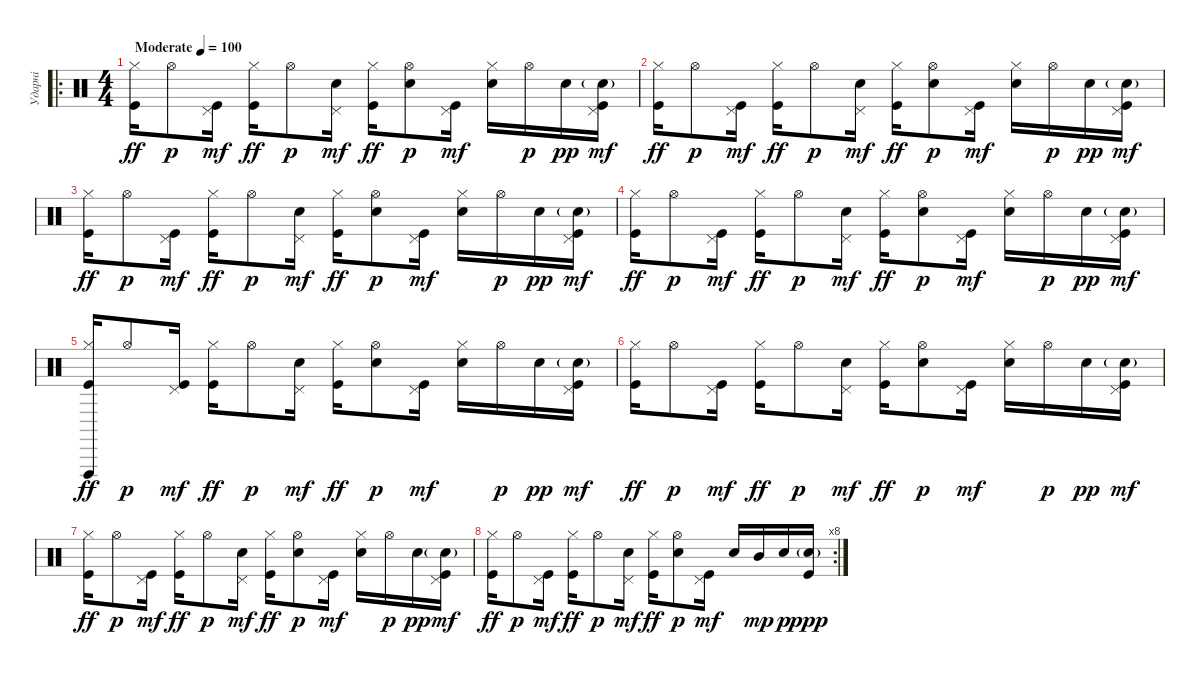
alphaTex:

\track ("Ударні" "Ударні") {instrument percussion}
\staff {score}
\articulation defaults
\ro
\ts (4 4)
\tempo (100 "Moderate")
\clef neutral
\ks c
("Hi-Hat (closed)" "Kick (hit)").16{dy ff} "Hi-Hat (open)".8{dy p} ("Pedal Hi-Hat (hit)" "Kick (hit)").16{dy mf} ("Hi-Hat (closed)" "Kick (hit)").16{dy ff} "Hi-Hat (open)".8{dy p} ("Pedal Hi-Hat (hit)" "Electric Snare (hit)").16{dy mf} ("Hi-Hat (closed)" "Kick (hit)").16{dy ff} ("Hi-Hat (open)" "Electric Snare (hit)").8{dy p} ("Pedal Hi-Hat (hit)" "Kick (hit)").16{dy mf} ("Hi-Hat (closed)" "Electric Snare (hit)").16 "Hi-Hat (open)".16{dy p} "Electric Snare (hit)".16{dy pp} ("Pedal Hi-Hat (hit)" "Electric Snare (hit)"{g} "Kick (hit)").16{dy mf} |
("Hi-Hat (closed)" "Kick (hit)").16{dy ff} "Hi-Hat (open)".8{dy p} ("Pedal Hi-Hat (hit)" "Kick (hit)").16{dy mf} ("Hi-Hat (closed)" "Kick (hit)").16{dy ff} "Hi-Hat (open)".8{dy p} ("Pedal Hi-Hat (hit)" "Electric Snare (hit)").16{dy mf} ("Hi-Hat (closed)" "Kick (hit)").16{dy ff} ("Hi-Hat (open)" "Electric Snare (hit)").8{dy p} ("Pedal Hi-Hat (hit)" "Kick (hit)").16{dy mf} ("Hi-Hat (closed)" "Electric Snare (hit)").16 "Hi-Hat (open)".16{dy p} "Electric Snare (hit)".16{dy pp} ("Pedal Hi-Hat (hit)" "Electric Snare (hit)"{g} "Kick (hit)").16{dy mf} |
("Hi-Hat (closed)" "Kick (hit)").16{dy ff} "Hi-Hat (open)".8{dy p} ("Pedal Hi-Hat (hit)" "Kick (hit)").16{dy mf} ("Hi-Hat (closed)" "Kick (hit)").16{dy ff} "Hi-Hat (open)".8{dy p} ("Pedal Hi-Hat (hit)" "Electric Snare (hit)").16{dy mf} ("Hi-Hat (closed)" "Kick (hit)").16{dy ff} ("Hi-Hat (open)" "Electric Snare (hit)").8{dy p} ("Pedal Hi-Hat (hit)" "Kick (hit)").16{dy mf} ("Hi-Hat (closed)" "Electric Snare (hit)").16 "Hi-Hat (open)".16{dy p} "Electric Snare (hit)".16{dy pp} ("Pedal Hi-Hat (hit)" "Electric Snare (hit)"{g} "Kick (hit)").16{dy mf} |
("Hi-Hat (closed)" "Kick (hit)").16{dy ff} "Hi-Hat (open)".8{dy p} ("Pedal Hi-Hat (hit)" "Kick (hit)").16{dy mf} ("Hi-Hat (closed)" "Kick (hit)").16{dy ff} "Hi-Hat (open)".8{dy p} ("Pedal Hi-Hat (hit)" "Electric Snare (hit)").16{dy mf} ("Hi-Hat (closed)" "Kick (hit)").16{dy ff} ("Hi-Hat (open)" "Electric Snare (hit)").8{dy p} ("Pedal Hi-Hat (hit)" "Kick (hit)").16{dy mf} ("Hi-Hat (closed)" "Electric Snare (hit)").16 "Hi-Hat (open)".16{dy p} "Electric Snare (hit)".16{dy pp} ("Pedal Hi-Hat (hit)" "Electric Snare (hit)"{g} "Kick (hit)").16{dy mf} |
("Vibraslap (hit)" "Hi-Hat (closed)" "Kick (hit)").16{dy ff} "Hi-Hat (open)".8{dy p} ("Pedal Hi-Hat (hit)" "Kick (hit)").16{dy mf} ("Hi-Hat (closed)" "Kick (hit)").16{dy ff} "Hi-Hat (open)".8{dy p} ("Pedal Hi-Hat (hit)" "Electric Snare (hit)").16{dy mf} ("Hi-Hat (closed)" "Kick (hit)").16{dy ff} ("Hi-Hat (open)" "Electric Snare (hit)").8{dy p} ("Pedal Hi-Hat (hit)" "Kick (hit)").16{dy mf} ("Hi-Hat (closed)" "Electric Snare (hit)").16 "Hi-Hat (open)".16{dy p} "Electric Snare (hit)".16{dy pp} ("Pedal Hi-Hat (hit)" "Electric Snare (hit)"{g} "Kick (hit)").16{dy mf} |
("Hi-Hat (closed)" "Kick (hit)").16{dy ff} "Hi-Hat (open)".8{dy p} ("Pedal Hi-Hat (hit)" "Kick (hit)").16{dy mf} ("Hi-Hat (closed)" "Kick (hit)").16{dy ff} "Hi-Hat (open)".8{dy p} ("Pedal Hi-Hat (hit)" "Electric Snare (hit)").16{dy mf} ("Hi-Hat (closed)" "Kick (hit)").16{dy ff} ("Hi-Hat (open)" "Electric Snare (hit)").8{dy p} ("Pedal Hi-Hat (hit)" "Kick (hit)").16{dy mf} ("Hi-Hat (closed)" "Electric Snare (hit)").16 "Hi-Hat (open)".16{dy p} "Electric Snare (hit)".16{dy pp} ("Pedal Hi-Hat (hit)" "Electric Snare (hit)"{g} "Kick (hit)").16{dy mf} |
("Hi-Hat (closed)" "Kick (hit)").16{dy ff} "Hi-Hat (open)".8{dy p} ("Pedal Hi-Hat (hit)" "Kick (hit)").16{dy mf} ("Hi-Hat (closed)" "Kick (hit)").16{dy ff} "Hi-Hat (open)".8{dy p} ("Pedal Hi-Hat (hit)" "Electric Snare (hit)").16{dy mf} ("Hi-Hat (closed)" "Kick (hit)").16{dy ff} ("Hi-Hat (open)" "Electric Snare (hit)").8{dy p} ("Pedal Hi-Hat (hit)" "Kick (hit)").16{dy mf} ("Hi-Hat (closed)" "Electric Snare (hit)").16 "Hi-Hat (open)".16{dy p} "Electric Snare (hit)".16{dy pp} ("Pedal Hi-Hat (hit)" "Electric Snare (hit)"{g} "Kick (hit)").16{dy mf} |
\rc 8
("Hi-Hat (closed)" "Kick (hit)").16{dy ff} "Hi-Hat (open)".8{dy p} ("Pedal Hi-Hat (hit)" "Kick (hit)").16{dy mf} ("Hi-Hat (closed)" "Kick (hit)").16{dy ff} "Hi-Hat (open)".8{dy p} ("Pedal Hi-Hat (hit)" "Electric Snare (hit)").16{dy mf} ("Hi-Hat (closed)" "Kick (hit)").16{dy ff} ("Hi-Hat (open)" "Electric Snare (hit)").8{dy p} ("Pedal Hi-Hat (hit)" "Kick (hit)").16{dy mf} "Electric Snare (hit)".16 "Mid Tom (hit)".16{dy mp} "Electric Snare (hit)".16{dy p} ("Electric Snare (hit)"{g} "Kick (hit)").16{dy ppp}
